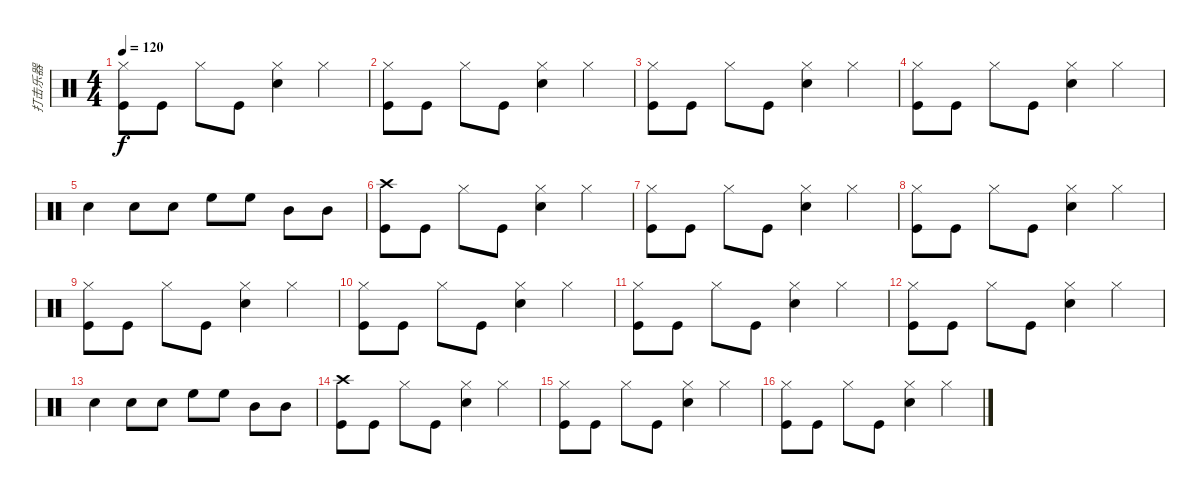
\track ("打击乐器" "打击乐器") {instrument percussion}
\staff {score}
\articulation defaults
\ts (4 4)
\tempo 120
\clef neutral
\ks c
("Hi-Hat (closed)" "Kick (hit)").8{dy f} "Kick (hit)".8 "Hi-Hat (closed)".8 "Kick (hit)".8 ("Hi-Hat (closed)" "Electric Snare (hit)").4 "Hi-Hat (closed)".4 |
("Hi-Hat (closed)" "Kick (hit)").8 "Kick (hit)".8 "Hi-Hat (closed)".8 "Kick (hit)".8 ("Hi-Hat (closed)" "Electric Snare (hit)").4 "Hi-Hat (closed)".4 |
("Hi-Hat (closed)" "Kick (hit)").8 "Kick (hit)".8 "Hi-Hat (closed)".8 "Kick (hit)".8 ("Hi-Hat (closed)" "Electric Snare (hit)").4 "Hi-Hat (closed)".4 |
("Hi-Hat (closed)" "Kick (hit)").8 "Kick (hit)".8 "Hi-Hat (closed)".8 "Kick (hit)".8 ("Hi-Hat (closed)" "Electric Snare (hit)").4 "Hi-Hat (closed)".4 |
"Electric Snare (hit)".4 "Electric Snare (hit)".8 "Electric Snare (hit)".8 "High Floor Tom (hit)".8 "High Floor Tom (hit)".8 "Mid Tom (hit)".8 "Mid Tom (hit)".8 |
("Crash high (hit)" "Kick (hit)").8 "Kick (hit)".8 "Hi-Hat (closed)".8 "Kick (hit)".8 ("Hi-Hat (closed)" "Electric Snare (hit)").4 "Hi-Hat (closed)".4 |
("Hi-Hat (closed)" "Kick (hit)").8 "Kick (hit)".8 "Hi-Hat (closed)".8 "Kick (hit)".8 ("Hi-Hat (closed)" "Electric Snare (hit)").4 "Hi-Hat (closed)".4 |
("Hi-Hat (closed)" "Kick (hit)").8 "Kick (hit)".8 "Hi-Hat (closed)".8 "Kick (hit)".8 ("Hi-Hat (closed)" "Electric Snare (hit)").4 "Hi-Hat (closed)".4 |
("Hi-Hat (closed)" "Kick (hit)").8 "Kick (hit)".8 "Hi-Hat (closed)".8 "Kick (hit)".8 ("Hi-Hat (closed)" "Electric Snare (hit)").4 "Hi-Hat (closed)".4 |
("Hi-Hat (closed)" "Kick (hit)").8 "Kick (hit)".8 "Hi-Hat (closed)".8 "Kick (hit)".8 ("Hi-Hat (closed)" "Electric Snare (hit)").4 "Hi-Hat (closed)".4 |
("Hi-Hat (closed)" "Kick (hit)").8 "Kick (hit)".8 "Hi-Hat (closed)".8 "Kick (hit)".8 ("Hi-Hat (closed)" "Electric Snare (hit)").4 "Hi-Hat (closed)".4 |
("Hi-Hat (closed)" "Kick (hit)").8 "Kick (hit)".8 "Hi-Hat (closed)".8 "Kick (hit)".8 ("Hi-Hat (closed)" "Electric Snare (hit)").4 "Hi-Hat (closed)".4 |
"Electric Snare (hit)".4 "Electric Snare (hit)".8 "Electric Snare (hit)".8 "High Floor Tom (hit)".8 "High Floor Tom (hit)".8 "Mid Tom (hit)".8 "Mid Tom (hit)".8 |
("Crash high (hit)" "Kick (hit)").8 "Kick (hit)".8 "Hi-Hat (closed)".8 "Kick (hit)".8 ("Hi-Hat (closed)" "Electric Snare (hit)").4 "Hi-Hat (closed)".4 |
("Hi-Hat (closed)" "Kick (hit)").8 "Kick (hit)".8 "Hi-Hat (closed)".8 "Kick (hit)".8 ("Hi-Hat (closed)" "Electric Snare (hit)").4 "Hi-Hat (closed)".4 |
("Hi-Hat (closed)" "Kick (hit)").8 "Kick (hit)".8 "Hi-Hat (closed)".8 "Kick (hit)".8 ("Hi-Hat (closed)" "Electric Snare (hit)").4 "Hi-Hat (closed)".4
